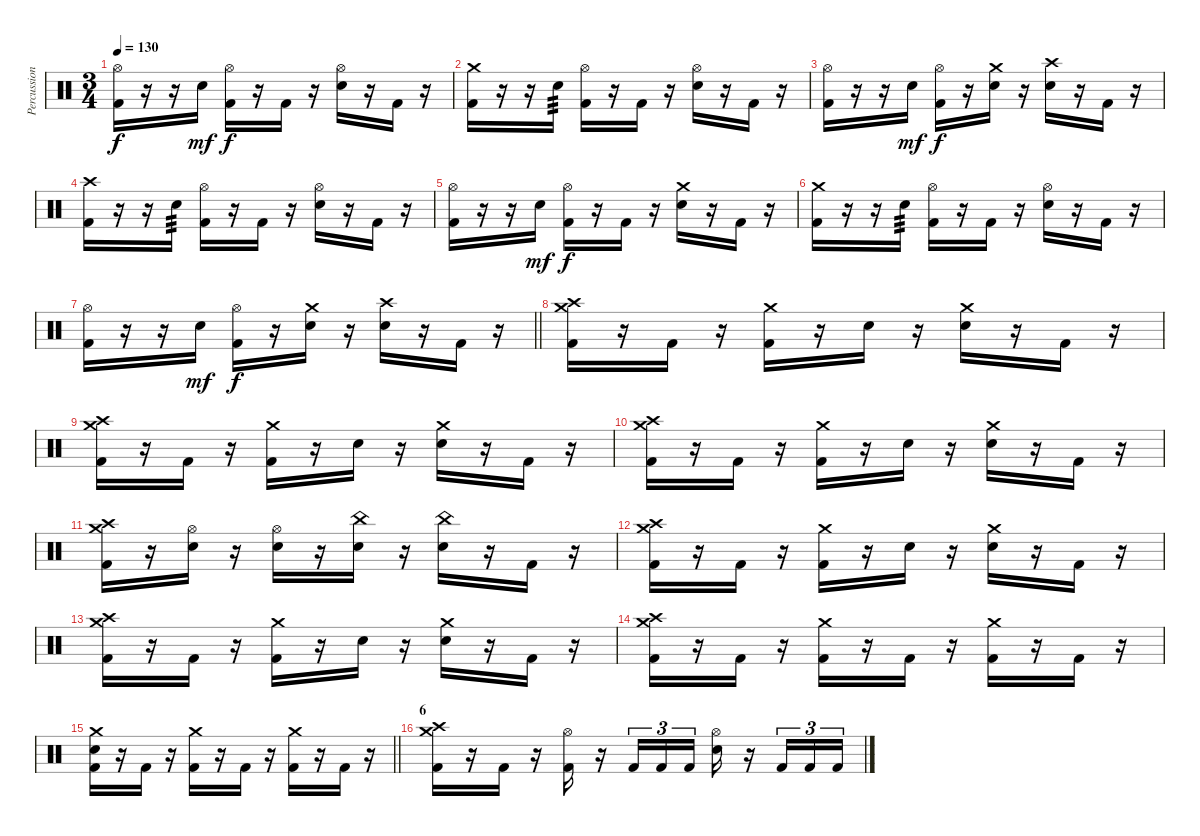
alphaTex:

\track ("Percussion" "Percussion") {instrument percussion}
\staff {score}
\articulation defaults
\ts (3 4)
\tempo 130
\clef neutral
\ks c
("Hi-Hat (open)" "Kick (hit) 2").16{dy f} r.16 r.16 "Snare (hit) 2".16{dy mf} ("Hi-Hat (open)" "Kick (hit) 2").16{dy f} r.16 "Kick (hit) 2".16 r.16 ("Hi-Hat (open)" "Snare (hit) 2").16 r.16 "Kick (hit) 2".16 r.16 |
("Crash medium (hit)" "Kick (hit) 2").16 r.16 r.16 "Snare (hit) 2".16{tp 3} ("Hi-Hat (open)" "Kick (hit) 2").16 r.16 "Kick (hit) 2".16 r.16 ("Hi-Hat (open)" "Snare (hit) 2").16 r.16 "Kick (hit) 2".16 r.16 |
("Hi-Hat (open)" "Kick (hit) 2").16 r.16 r.16 "Snare (hit) 2".16{dy mf} ("Hi-Hat (open)" "Kick (hit) 2").16{dy f} r.16 ("Crash medium (hit)" "Snare (hit) 2").16 r.16 ("Crash high (hit)" "Snare (hit) 2").16 r.16 "Kick (hit) 2".16 r.16 |
("Crash high (hit)" "Kick (hit) 2").16 r.16 r.16 "Snare (hit) 2".16{tp 3} ("Hi-Hat (open)" "Kick (hit) 2").16 r.16 "Kick (hit) 2".16 r.16 ("Hi-Hat (open)" "Snare (hit) 2").16 r.16 "Kick (hit) 2".16 r.16 |
("Hi-Hat (open)" "Kick (hit) 2").16 r.16 r.16 "Snare (hit) 2".16{dy mf} ("Hi-Hat (open)" "Kick (hit) 2").16{dy f} r.16 "Kick (hit) 2".16 r.16 ("Crash medium (hit)" "Snare (hit) 2").16 r.16 "Kick (hit) 2".16 r.16 |
("Crash medium (hit)" "Kick (hit) 2").16 r.16 r.16 "Snare (hit) 2".16{tp 3} ("Hi-Hat (open)" "Kick (hit) 2").16 r.16 "Kick (hit) 2".16 r.16 ("Hi-Hat (open)" "Snare (hit) 2").16 r.16 "Kick (hit) 2".16 r.16 |
\barLineRight lightlight
("Hi-Hat (open)" "Kick (hit) 2").16 r.16 r.16 "Snare (hit) 2".16{dy mf} ("Hi-Hat (open)" "Kick (hit) 2").16{dy f} r.16 ("Crash medium (hit)" "Snare (hit) 2").16 r.16 ("Crash high (hit)" "Snare (hit) 2").16 r.16 "Kick (hit) 2".16 r.16 |
\section ("" "")
("Crash medium (hit)" "Crash high (hit)" "Kick (hit) 2").16 r.16 "Kick (hit) 2".16 r.16 ("Crash medium (hit)" "Kick (hit) 2").16 r.16 "Snare (hit) 2".16 r.16 ("Crash medium (hit)" "Snare (hit) 2").16 r.16 "Kick (hit) 2".16 r.16 |
("Crash medium (hit)" "Crash high (hit)" "Kick (hit) 2").16 r.16 "Kick (hit) 2".16 r.16 ("Crash medium (hit)" "Kick (hit) 2").16 r.16 "Snare (hit) 2".16 r.16 ("Crash medium (hit)" "Snare (hit) 2").16 r.16 "Kick (hit) 2".16 r.16 |
("Crash medium (hit)" "Crash high (hit)" "Kick (hit) 2").16 r.16 "Kick (hit) 2".16 r.16 ("Crash medium (hit)" "Kick (hit) 2").16 r.16 "Snare (hit) 2".16 r.16 ("Crash medium (hit)" "Snare (hit) 2").16 r.16 "Kick (hit) 2".16 r.16 |
("Crash medium (hit)" "Crash high (hit)" "Kick (hit) 2").16 r.16 ("Hi-Hat (open)" "Snare (hit) 2").16 r.16 ("Hi-Hat (open)" "Snare (hit) 2").16 r.16 ("China (hit)" "Snare (hit) 2").16 r.16 ("China (hit)" "Snare (hit) 2").16 r.16 "Kick (hit) 2".16 r.16 |
("Crash medium (hit)" "Crash high (hit)" "Kick (hit) 2").16 r.16 "Kick (hit) 2".16 r.16 ("Crash medium (hit)" "Kick (hit) 2").16 r.16 "Snare (hit) 2".16 r.16 ("Crash medium (hit)" "Snare (hit) 2").16 r.16 "Kick (hit) 2".16 r.16 |
("Crash medium (hit)" "Crash high (hit)" "Kick (hit) 2").16 r.16 "Kick (hit) 2".16 r.16 ("Crash medium (hit)" "Kick (hit) 2").16 r.16 "Snare (hit) 2".16 r.16 ("Crash medium (hit)" "Snare (hit) 2").16 r.16 "Kick (hit) 2".16 r.16 |
("Crash medium (hit)" "Crash high (hit)" "Kick (hit) 2").16 r.16 "Kick (hit) 2".16 r.16 ("Crash medium (hit)" "Kick (hit) 2").16 r.16 "Kick (hit) 2".16 r.16 ("Crash medium (hit)" "Kick (hit) 2").16 r.16 "Kick (hit) 2".16 r.16 |
\barLineRight lightlight
("Crash medium (hit)" "Snare (hit) 2" "Kick (hit) 2").16 r.16 "Kick (hit) 2".16 r.16 ("Crash medium (hit)" "Kick (hit) 2").16 r.16 "Kick (hit) 2".16 r.16 ("Crash medium (hit)" "Kick (hit) 2").16 r.16 "Kick (hit) 2".16 r.16 |
\section ("" "6")
("Crash medium (hit)" "Crash high (hit)" "Kick (hit) 2").16 r.16 "Kick (hit) 2".16 r.16 ("Hi-Hat (open)" "Kick (hit) 2").16 r.16 "Kick (hit) 2".16{tu (3 2)} "Kick (hit) 2".16{tu (3 2)} "Kick (hit) 2".16{tu (3 2)} ("Hi-Hat (open)" "Snare (hit) 2").16 r.16 "Kick (hit) 2".16{tu (3 2)} "Kick (hit) 2".16{tu (3 2)} "Kick (hit) 2".16{tu (3 2)}
